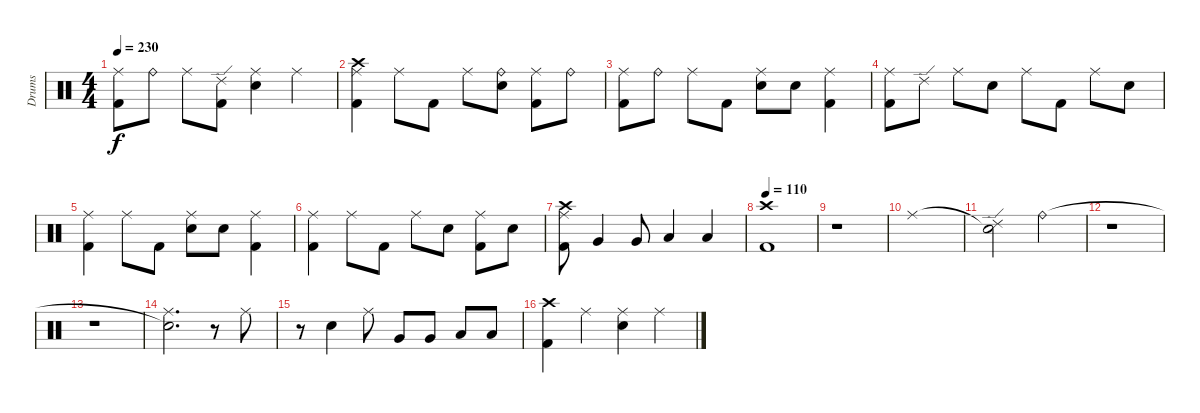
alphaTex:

\track ("Drums" "Drums") {instrument percussion}
\staff {score}
\articulation defaults
\ts (4 4)
\tempo 230
\clef neutral
\ks c
("Ride (middle)" "Kick (hit) 2").8{dy f} "Ride (bell)".8 "Ride (middle)".8 ("Ride (edge) 2" "Kick (hit) 2").8 ("Ride (middle)" "Electric Snare (hit)").4 "Ride (middle)".4 |
("Crash high (hit)" "Ride (middle)" "Kick (hit) 2").4 "Ride (middle)".8 "Kick (hit) 2".8 "Ride (middle)".8 ("Ride (bell)" "Electric Snare (hit)").8 ("Ride (middle)" "Kick (hit) 2").8 "Ride (bell)".8 |
("Ride (middle)" "Kick (hit) 2").8 "Ride (bell)".8 "Ride (middle)".8 "Kick (hit) 2".8 ("Ride (middle)" "Electric Snare (hit)").8 "Electric Snare (hit)".8 ("Ride (middle)" "Kick (hit) 2").4 |
("Ride (middle)" "Kick (hit) 2").8 "Ride (edge) 2".8 "Ride (middle)".8 "Electric Snare (hit)".8 "Ride (middle)".8 "Kick (hit) 2".8 "Ride (middle)".8 "Electric Snare (hit)".8 |
("Ride (middle)" "Kick (hit) 2").4 "Ride (middle)".8 "Kick (hit) 2".8 ("Ride (middle)" "Electric Snare (hit)").8 "Electric Snare (hit)".8 ("Ride (middle)" "Kick (hit) 2").4 |
("Ride (middle)" "Kick (hit) 2").4 "Ride (middle)".8 "Kick (hit) 2".8 "Ride (middle)".8 "Electric Snare (hit)".8 ("Ride (middle)" "Kick (hit) 2").8 "Electric Snare (hit)".8 |
("Crash high (hit)" "Ride (middle)" "Kick (hit) 2").8 "Very Low Tom (hit)".4 "Very Low Tom (hit)".8 "Low Floor Tom (hit)".4 "Low Floor Tom (hit)".4 |
\tempo 110
("Crash high (hit)" "Kick (hit) 2").1 |
r.1 |
"Ride (middle)".1 |
("Snare (hit)"{t} "Ride (edge) 2").2 "Ride (bell)".2 |
r.1 |
r.1 |
("Snare (hit)"{t} "Ride (middle)").2{d} r.8 "Ride (middle)".8 |
r.8 "Electric Snare (hit)".4 "Ride (middle)".8 "Very Low Tom (hit)".8 "Very Low Tom (hit)".8 "Low Floor Tom (hit)".8 "Low Floor Tom (hit)".8 |
("Crash high (hit)" "Kick (hit) 2").4 "Ride (middle)".4 ("Ride (middle)" "Electric Snare (hit)").4 "Ride (middle)".4
